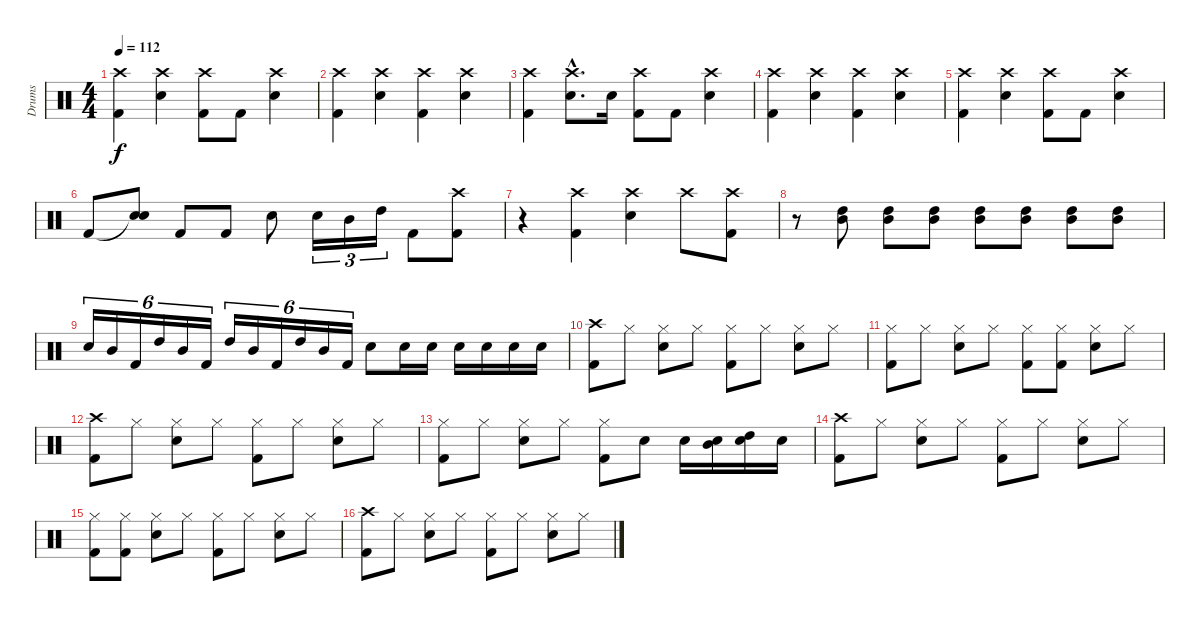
\track ("Drums" "Drums") {instrument percussion}
\staff {score}
\articulation defaults
\ts (4 4)
\tempo 112
\clef neutral
\ks c
("Crash high (hit)" "Kick (hit) 2").4{dy f} ("Crash high (hit)" "Electric Snare (hit)").4 ("Crash high (hit)" "Kick (hit) 2").8 "Kick (hit) 2".8 ("Crash high (hit)" "Electric Snare (hit)").4 |
("Crash high (hit)" "Kick (hit) 2").4 ("Crash high (hit)" "Electric Snare (hit)").4 ("Crash high (hit)" "Kick (hit) 2").4 ("Crash high (hit)" "Electric Snare (hit)").4 |
("Crash high (hit)" "Kick (hit) 2").4 ("Crash high (hit)"{hac} "Electric Snare (hit)"{hac}).8{d} "Electric Snare (hit)".16 ("Crash high (hit)" "Kick (hit) 2").8 "Kick (hit) 2".8 ("Crash high (hit)" "Electric Snare (hit)").4 |
("Crash high (hit)" "Kick (hit) 2").4 ("Crash high (hit)" "Electric Snare (hit)").4 ("Crash high (hit)" "Kick (hit) 2").4 ("Crash high (hit)" "Electric Snare (hit)").4 |
("Crash high (hit)" "Kick (hit) 2").4 ("Crash high (hit)" "Electric Snare (hit)").4 ("Crash high (hit)" "Kick (hit) 2").8 "Kick (hit) 2".8 ("Crash high (hit)" "Electric Snare (hit)").4 |
"Kick (hit) 2".8 ("Snare (hit)"{t} "Electric Snare (hit)").8 "Kick (hit) 2".8 "Kick (hit) 2".8 "Electric Snare (hit)".8 "Electric Snare (hit)".16{tu (3 2)} "Mid Tom (hit)".16{tu (3 2)} "High Tom (hit)".16{tu (3 2)} "Kick (hit) 2".8 ("Crash high (hit)" "Kick (hit) 2").8 |
r.4 ("Crash high (hit)" "Kick (hit) 2").4 ("Crash high (hit)" "Electric Snare (hit)").4 "Crash high (hit)".8 ("Crash high (hit)" "Kick (hit) 2").8 |
r.8 ("Mid Tom (hit)" "High Tom (hit)").8 ("Mid Tom (hit)" "High Tom (hit)").8 ("Mid Tom (hit)" "High Tom (hit)").8 ("Mid Tom (hit)" "High Tom (hit)").8 ("Mid Tom (hit)" "High Tom (hit)").8 ("Mid Tom (hit)" "High Tom (hit)").8 ("Mid Tom (hit)" "High Tom (hit)").8 |
"Electric Snare (hit)".16{tu (6 4)} "Mid Tom (hit)".16{tu (6 4)} "Kick (hit) 2".16{tu (6 4)} "High Tom (hit)".16{tu (6 4)} "Mid Tom (hit)".16{tu (6 4)} "Kick (hit) 2".16{tu (6 4)} "High Tom (hit)".16{tu (6 4)} "Mid Tom (hit)".16{tu (6 4)} "Kick (hit) 2".16{tu (6 4)} "High Tom (hit)".16{tu (6 4)} "Mid Tom (hit)".16{tu (6 4)} "Kick (hit) 2".16{tu (6 4)} "Electric Snare (hit)".8 "Electric Snare (hit)".16 "Electric Snare (hit)".16 "Electric Snare (hit)".16 "Electric Snare (hit)".16 "Electric Snare (hit)".16 "Electric Snare (hit)".16 |
("Crash high (hit)" "Kick (hit) 2").8 "Hi-Hat (closed)".8 ("Hi-Hat (closed)" "Electric Snare (hit)").8 "Hi-Hat (closed)".8 ("Hi-Hat (closed)" "Kick (hit) 2").8 "Hi-Hat (closed)".8 ("Hi-Hat (closed)" "Electric Snare (hit)").8 "Hi-Hat (closed)".8 |
("Hi-Hat (closed)" "Kick (hit) 2").8 "Hi-Hat (closed)".8 ("Hi-Hat (closed)" "Electric Snare (hit)").8 "Hi-Hat (closed)".8 ("Hi-Hat (closed)" "Kick (hit) 2").8 ("Hi-Hat (closed)" "Kick (hit) 2").8 ("Hi-Hat (closed)" "Electric Snare (hit)").8 "Hi-Hat (closed)".8 |
("Crash high (hit)" "Kick (hit) 2").8 "Hi-Hat (closed)".8 ("Hi-Hat (closed)" "Electric Snare (hit)").8 "Hi-Hat (closed)".8 ("Hi-Hat (closed)" "Kick (hit) 2").8 "Hi-Hat (closed)".8 ("Hi-Hat (closed)" "Electric Snare (hit)").8 "Hi-Hat (closed)".8 |
("Hi-Hat (closed)" "Kick (hit) 2").8 "Hi-Hat (closed)".8 ("Hi-Hat (closed)" "Electric Snare (hit)").8 "Hi-Hat (closed)".8 ("Hi-Hat (closed)" "Kick (hit) 2").8 "Electric Snare (hit)".8 "Electric Snare (hit)".16 ("Mid Tom (hit)" "Electric Snare (hit)").16 ("High Tom (hit)" "Electric Snare (hit)").16 "Electric Snare (hit)".16 |
("Crash high (hit)" "Kick (hit) 2").8 "Hi-Hat (closed)".8 ("Hi-Hat (closed)" "Electric Snare (hit)").8 "Hi-Hat (closed)".8 ("Hi-Hat (closed)" "Kick (hit) 2").8 "Hi-Hat (closed)".8 ("Hi-Hat (closed)" "Electric Snare (hit)").8 "Hi-Hat (closed)".8 |
("Hi-Hat (closed)" "Kick (hit) 2").8 ("Hi-Hat (closed)" "Kick (hit) 2").8 ("Hi-Hat (closed)" "Electric Snare (hit)").8 "Hi-Hat (closed)".8 ("Hi-Hat (closed)" "Kick (hit) 2").8 "Hi-Hat (closed)".8 ("Hi-Hat (closed)" "Electric Snare (hit)").8 "Hi-Hat (closed)".8 |
("Crash high (hit)" "Kick (hit) 2").8 "Hi-Hat (closed)".8 ("Hi-Hat (closed)" "Electric Snare (hit)").8 "Hi-Hat (closed)".8 ("Hi-Hat (closed)" "Kick (hit) 2").8 "Hi-Hat (closed)".8 ("Hi-Hat (closed)" "Electric Snare (hit)").8 "Hi-Hat (closed)".8
